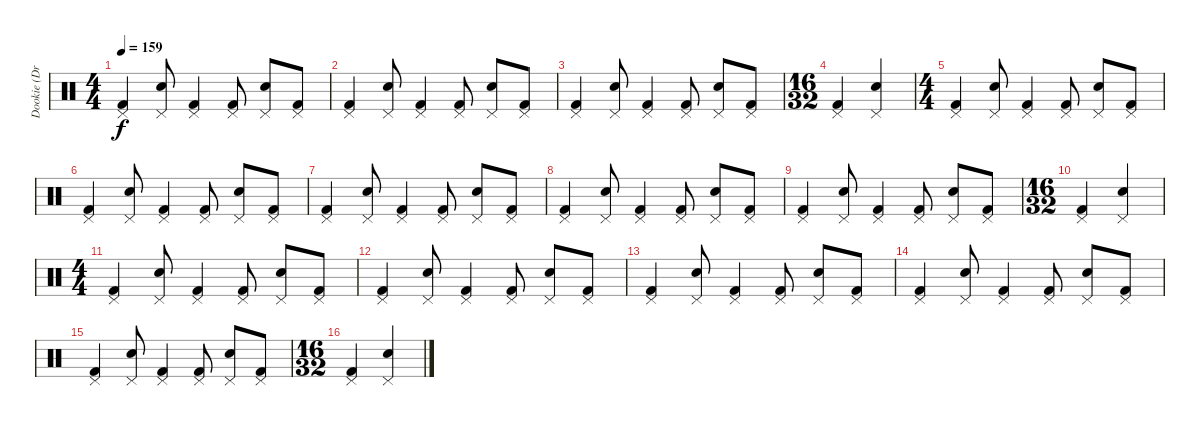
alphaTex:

\track ("Dookie (Drums)" "Dookie (Dr") {instrument percussion}
\staff {score}
\articulation defaults
\ts (4 4)
\tempo 159
\clef neutral
\ks c
("Kick (hit) 2" "Pedal Hi-Hat (hit)").4{dy f} ("Electric Snare (hit)" "Pedal Hi-Hat (hit)").8 ("Kick (hit) 2" "Pedal Hi-Hat (hit)").4 ("Kick (hit) 2" "Pedal Hi-Hat (hit)").8 ("Electric Snare (hit)" "Pedal Hi-Hat (hit)").8 ("Kick (hit) 2" "Pedal Hi-Hat (hit)").8 |
("Kick (hit) 2" "Pedal Hi-Hat (hit)").4 ("Electric Snare (hit)" "Pedal Hi-Hat (hit)").8 ("Kick (hit) 2" "Pedal Hi-Hat (hit)").4 ("Kick (hit) 2" "Pedal Hi-Hat (hit)").8 ("Electric Snare (hit)" "Pedal Hi-Hat (hit)").8 ("Kick (hit) 2" "Pedal Hi-Hat (hit)").8 |
("Kick (hit) 2" "Pedal Hi-Hat (hit)").4 ("Electric Snare (hit)" "Pedal Hi-Hat (hit)").8 ("Kick (hit) 2" "Pedal Hi-Hat (hit)").4 ("Kick (hit) 2" "Pedal Hi-Hat (hit)").8 ("Electric Snare (hit)" "Pedal Hi-Hat (hit)").8 ("Kick (hit) 2" "Pedal Hi-Hat (hit)").8 |
\ts (16 32)
("Kick (hit) 2" "Pedal Hi-Hat (hit)").4 ("Electric Snare (hit)" "Pedal Hi-Hat (hit)").4 |
\ts (4 4)
("Kick (hit) 2" "Pedal Hi-Hat (hit)").4 ("Electric Snare (hit)" "Pedal Hi-Hat (hit)").8 ("Kick (hit) 2" "Pedal Hi-Hat (hit)").4 ("Kick (hit) 2" "Pedal Hi-Hat (hit)").8 ("Electric Snare (hit)" "Pedal Hi-Hat (hit)").8 ("Kick (hit) 2" "Pedal Hi-Hat (hit)").8 |
("Kick (hit) 2" "Pedal Hi-Hat (hit)").4 ("Electric Snare (hit)" "Pedal Hi-Hat (hit)").8 ("Kick (hit) 2" "Pedal Hi-Hat (hit)").4 ("Kick (hit) 2" "Pedal Hi-Hat (hit)").8 ("Electric Snare (hit)" "Pedal Hi-Hat (hit)").8 ("Kick (hit) 2" "Pedal Hi-Hat (hit)").8 |
("Kick (hit) 2" "Pedal Hi-Hat (hit)").4 ("Electric Snare (hit)" "Pedal Hi-Hat (hit)").8 ("Kick (hit) 2" "Pedal Hi-Hat (hit)").4 ("Kick (hit) 2" "Pedal Hi-Hat (hit)").8 ("Electric Snare (hit)" "Pedal Hi-Hat (hit)").8 ("Kick (hit) 2" "Pedal Hi-Hat (hit)").8 |
("Kick (hit) 2" "Pedal Hi-Hat (hit)").4 ("Electric Snare (hit)" "Pedal Hi-Hat (hit)").8 ("Kick (hit) 2" "Pedal Hi-Hat (hit)").4 ("Kick (hit) 2" "Pedal Hi-Hat (hit)").8 ("Electric Snare (hit)" "Pedal Hi-Hat (hit)").8 ("Kick (hit) 2" "Pedal Hi-Hat (hit)").8 |
("Kick (hit) 2" "Pedal Hi-Hat (hit)").4 ("Electric Snare (hit)" "Pedal Hi-Hat (hit)").8 ("Kick (hit) 2" "Pedal Hi-Hat (hit)").4 ("Kick (hit) 2" "Pedal Hi-Hat (hit)").8 ("Electric Snare (hit)" "Pedal Hi-Hat (hit)").8 ("Kick (hit) 2" "Pedal Hi-Hat (hit)").8 |
\ts (16 32)
("Kick (hit) 2" "Pedal Hi-Hat (hit)").4 ("Electric Snare (hit)" "Pedal Hi-Hat (hit)").4 |
\ts (4 4)
("Kick (hit) 2" "Pedal Hi-Hat (hit)").4 ("Electric Snare (hit)" "Pedal Hi-Hat (hit)").8 ("Kick (hit) 2" "Pedal Hi-Hat (hit)").4 ("Kick (hit) 2" "Pedal Hi-Hat (hit)").8 ("Electric Snare (hit)" "Pedal Hi-Hat (hit)").8 ("Kick (hit) 2" "Pedal Hi-Hat (hit)").8 |
("Kick (hit) 2" "Pedal Hi-Hat (hit)").4 ("Electric Snare (hit)" "Pedal Hi-Hat (hit)").8 ("Kick (hit) 2" "Pedal Hi-Hat (hit)").4 ("Kick (hit) 2" "Pedal Hi-Hat (hit)").8 ("Electric Snare (hit)" "Pedal Hi-Hat (hit)").8 ("Kick (hit) 2" "Pedal Hi-Hat (hit)").8 |
("Kick (hit) 2" "Pedal Hi-Hat (hit)").4 ("Electric Snare (hit)" "Pedal Hi-Hat (hit)").8 ("Kick (hit) 2" "Pedal Hi-Hat (hit)").4 ("Kick (hit) 2" "Pedal Hi-Hat (hit)").8 ("Electric Snare (hit)" "Pedal Hi-Hat (hit)").8 ("Kick (hit) 2" "Pedal Hi-Hat (hit)").8 |
("Kick (hit) 2" "Pedal Hi-Hat (hit)").4 ("Electric Snare (hit)" "Pedal Hi-Hat (hit)").8 ("Kick (hit) 2" "Pedal Hi-Hat (hit)").4 ("Kick (hit) 2" "Pedal Hi-Hat (hit)").8 ("Electric Snare (hit)" "Pedal Hi-Hat (hit)").8 ("Kick (hit) 2" "Pedal Hi-Hat (hit)").8 |
("Kick (hit) 2" "Pedal Hi-Hat (hit)").4 ("Electric Snare (hit)" "Pedal Hi-Hat (hit)").8 ("Kick (hit) 2" "Pedal Hi-Hat (hit)").4 ("Kick (hit) 2" "Pedal Hi-Hat (hit)").8 ("Electric Snare (hit)" "Pedal Hi-Hat (hit)").8 ("Kick (hit) 2" "Pedal Hi-Hat (hit)").8 |
\ts (16 32)
("Kick (hit) 2" "Pedal Hi-Hat (hit)").4 ("Electric Snare (hit)" "Pedal Hi-Hat (hit)").4
